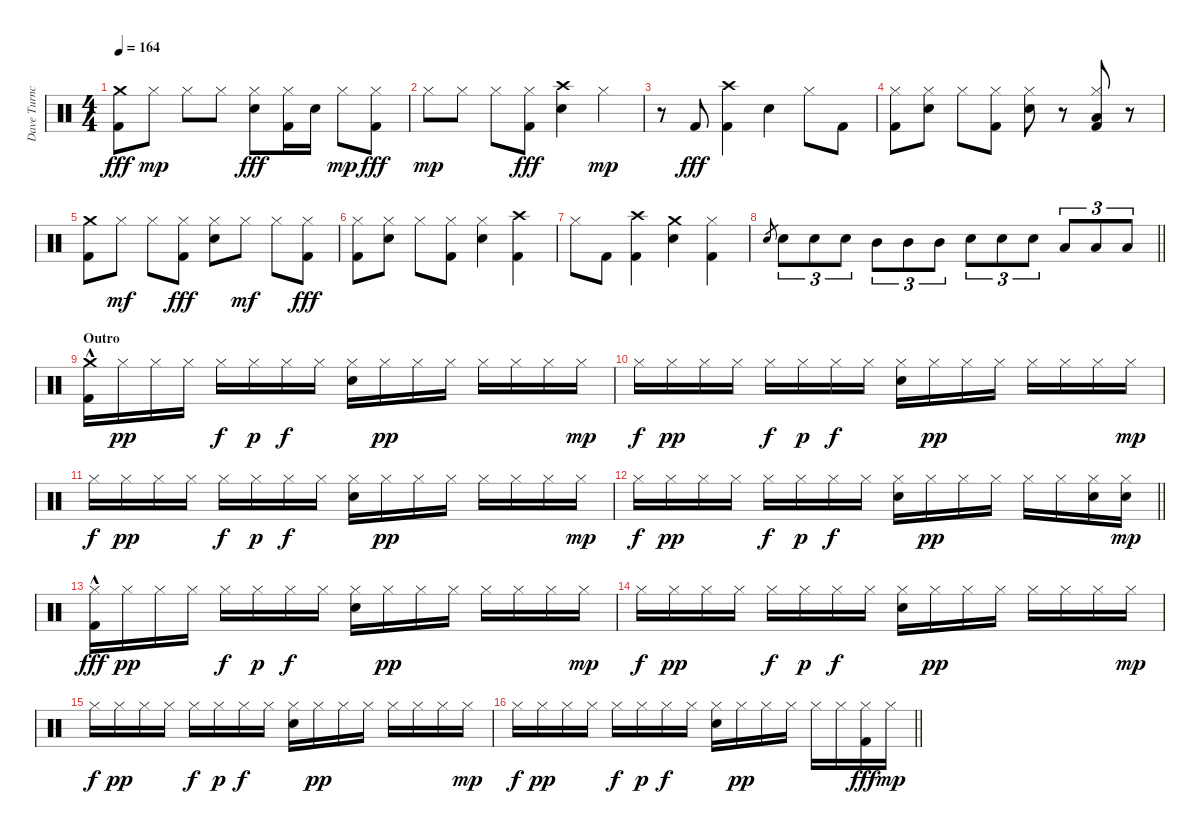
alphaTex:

\track ("Dave Turncrantz" "Dave Turnc") {instrument percussion}
\staff {score}
\articulation defaults
\ts (4 4)
\section ("" "")
\tempo 164
\clef neutral
\ks c
("Crash medium (hit)" "Kick (hit) 2").8{dy fff} "Hi-Hat (closed)".8{dy mp} "Hi-Hat (closed)".8 "Hi-Hat (closed)".8 ("Hi-Hat (closed)" "Electric Snare (hit)").8{dy fff} ("Hi-Hat (closed)" "Kick (hit) 2").16 "Electric Snare (hit)".16 "Hi-Hat (closed)".8{dy mp} ("Hi-Hat (closed)" "Kick (hit) 2").8{dy fff} |
"Hi-Hat (closed)".8{dy mp} "Hi-Hat (closed)".8 "Hi-Hat (closed)".8 ("Hi-Hat (closed)" "Kick (hit) 2").8{dy fff} ("Crash high (hit)" "Electric Snare (hit)").4 "Hi-Hat (closed)".4{dy mp} |
r.8 "Kick (hit) 2".8{dy fff} ("Crash high (hit)" "Kick (hit) 2").4 "Electric Snare (hit)".4 "Hi-Hat (closed)".8 "Kick (hit) 2".8 |
("Hi-Hat (closed)" "Kick (hit) 2").8 ("Hi-Hat (closed)" "Electric Snare (hit)").8 "Hi-Hat (closed)".8 ("Hi-Hat (closed)" "Kick (hit) 2").8 ("Hi-Hat (closed)" "Electric Snare (hit)").8 r.8 ("Hi-Hat (closed)" "Low Tom (hit)" "Kick (hit) 2").8 r.8 |
("Crash medium (hit)" "Kick (hit) 2").8 "Hi-Hat (closed)".8{dy mf} "Hi-Hat (closed)".8 ("Hi-Hat (closed)" "Kick (hit) 2").8{dy fff} ("Hi-Hat (closed)" "Electric Snare (hit)").8 "Hi-Hat (closed)".8{dy mf} "Hi-Hat (closed)".8 ("Hi-Hat (closed)" "Kick (hit) 2").8{dy fff} |
("Hi-Hat (closed)" "Kick (hit) 2").8 ("Hi-Hat (closed)" "Electric Snare (hit)").8 "Hi-Hat (closed)".8 ("Hi-Hat (closed)" "Kick (hit) 2").8 ("Hi-Hat (closed)" "Electric Snare (hit)").4 ("Crash high (hit)" "Kick (hit) 2").4 |
"Hi-Hat (closed)".8 "Kick (hit) 2".8 ("Crash high (hit)" "Kick (hit) 2").4 ("Crash medium (hit)" "Electric Snare (hit)").4 ("Hi-Hat (closed)" "Kick (hit) 2").4 |
\barLineRight lightlight "Electric Snare (hit)".8{gr} "Electric Snare (hit)".8{tu (3 2)} "Electric Snare (hit)".8{tu (3 2)} "Electric Snare (hit)".8{tu (3 2)} "Mid Tom (hit)".8{tu (3 2)} "Mid Tom (hit)".8{tu (3 2)} "Mid Tom (hit)".8{tu (3 2)} "Electric Snare (hit)".8{tu (3 2)} "Electric Snare (hit)".8{tu (3 2)} "Electric Snare (hit)".8{tu (3 2)} "Low Tom (hit)".8{tu (3 2)} "Low Tom (hit)".8{tu (3 2)} "Low Tom (hit)".8{tu (3 2)}
|
\section ("" "Outro")
("Crash medium (hit)" "Kick (hit) 2"{hac}).16 "Hi-Hat (closed)".16{dy pp} "Hi-Hat (closed)".16 "Hi-Hat (closed)".16 "Hi-Hat (closed)".16{dy f} "Hi-Hat (closed)".16{dy p} "Hi-Hat (closed)".16{dy f} "Hi-Hat (closed)".16 ("Hi-Hat (closed)" "Electric Snare (hit)").16 "Hi-Hat (closed)".16{dy pp} "Hi-Hat (closed)".16 "Hi-Hat (closed)".16 "Hi-Hat (closed)".16 "Hi-Hat (closed)".16 "Hi-Hat (closed)".16 "Hi-Hat (closed)".16{dy mp} |
"Hi-Hat (closed)".16{dy f} "Hi-Hat (closed)".16{dy pp} "Hi-Hat (closed)".16 "Hi-Hat (closed)".16 "Hi-Hat (closed)".16{dy f} "Hi-Hat (closed)".16{dy p} "Hi-Hat (closed)".16{dy f} "Hi-Hat (closed)".16 ("Hi-Hat (closed)" "Electric Snare (hit)").16 "Hi-Hat (closed)".16{dy pp} "Hi-Hat (closed)".16 "Hi-Hat (closed)".16 "Hi-Hat (closed)".16 "Hi-Hat (closed)".16 "Hi-Hat (closed)".16 "Hi-Hat (closed)".16{dy mp} |
"Hi-Hat (closed)".16{dy f} "Hi-Hat (closed)".16{dy pp} "Hi-Hat (closed)".16 "Hi-Hat (closed)".16 "Hi-Hat (closed)".16{dy f} "Hi-Hat (closed)".16{dy p} "Hi-Hat (closed)".16{dy f} "Hi-Hat (closed)".16 ("Hi-Hat (closed)" "Electric Snare (hit)").16 "Hi-Hat (closed)".16{dy pp} "Hi-Hat (closed)".16 "Hi-Hat (closed)".16 "Hi-Hat (closed)".16 "Hi-Hat (closed)".16 "Hi-Hat (closed)".16 "Hi-Hat (closed)".16{dy mp} |
\barLineRight lightlight "Hi-Hat (closed)".16{dy f} "Hi-Hat (closed)".16{dy pp} "Hi-Hat (closed)".16 "Hi-Hat (closed)".16 "Hi-Hat (closed)".16{dy f} "Hi-Hat (closed)".16{dy p} "Hi-Hat (closed)".16{dy f} "Hi-Hat (closed)".16
("Hi-Hat (closed)" "Electric Snare (hit)").16 "Hi-Hat (closed)".16{dy pp} "Hi-Hat (closed)".16 "Hi-Hat (closed)".16 "Hi-Hat (closed)".16 "Hi-Hat (closed)".16 ("Hi-Hat (closed)" "Electric Snare (hit)").16 ("Hi-Hat (closed)" "Electric Snare (hit)").16{dy mp} |
\section ("" "")
("Hi-Hat (closed)" "Kick (hit) 2"{hac}).16{dy fff} "Hi-Hat (closed)".16{dy pp} "Hi-Hat (closed)".16 "Hi-Hat (closed)".16 "Hi-Hat (closed)".16{dy f} "Hi-Hat (closed)".16{dy p} "Hi-Hat (closed)".16{dy f} "Hi-Hat (closed)".16 ("Hi-Hat (closed)" "Electric Snare (hit)").16 "Hi-Hat (closed)".16{dy pp} "Hi-Hat (closed)".16 "Hi-Hat (closed)".16 "Hi-Hat (closed)".16 "Hi-Hat (closed)".16 "Hi-Hat (closed)".16 "Hi-Hat (closed)".16{dy mp} |
"Hi-Hat (closed)".16{dy f} "Hi-Hat (closed)".16{dy pp} "Hi-Hat (closed)".16 "Hi-Hat (closed)".16 "Hi-Hat (closed)".16{dy f} "Hi-Hat (closed)".16{dy p} "Hi-Hat (closed)".16{dy f} "Hi-Hat (closed)".16 ("Hi-Hat (closed)" "Electric Snare (hit)").16 "Hi-Hat (closed)".16{dy pp} "Hi-Hat (closed)".16 "Hi-Hat (closed)".16 "Hi-Hat (closed)".16 "Hi-Hat (closed)".16 "Hi-Hat (closed)".16 "Hi-Hat (closed)".16{dy mp} |
"Hi-Hat (closed)".16{dy f} "Hi-Hat (closed)".16{dy pp} "Hi-Hat (closed)".16 "Hi-Hat (closed)".16 "Hi-Hat (closed)".16{dy f} "Hi-Hat (closed)".16{dy p} "Hi-Hat (closed)".16{dy f} "Hi-Hat (closed)".16 ("Hi-Hat (closed)" "Electric Snare (hit)").16 "Hi-Hat (closed)".16{dy pp} "Hi-Hat (closed)".16 "Hi-Hat (closed)".16 "Hi-Hat (closed)".16 "Hi-Hat (closed)".16 "Hi-Hat (closed)".16 "Hi-Hat (closed)".16{dy mp} |
\barLineRight lightlight "Hi-Hat (closed)".16{dy f} "Hi-Hat (closed)".16{dy pp} "Hi-Hat (closed)".16 "Hi-Hat (closed)".16 "Hi-Hat (closed)".16{dy f} "Hi-Hat (closed)".16{dy p} "Hi-Hat (closed)".16{dy f} "Hi-Hat (closed)".16
("Hi-Hat (closed)" "Electric Snare (hit)").16 "Hi-Hat (closed)".16{dy pp} "Hi-Hat (closed)".16 "Hi-Hat (closed)".16 "Hi-Hat (closed)".16 "Hi-Hat (closed)".16 ("Hi-Hat (closed)" "Kick (hit) 2").16{dy fff} "Hi-Hat (closed)".16{dy mp}
